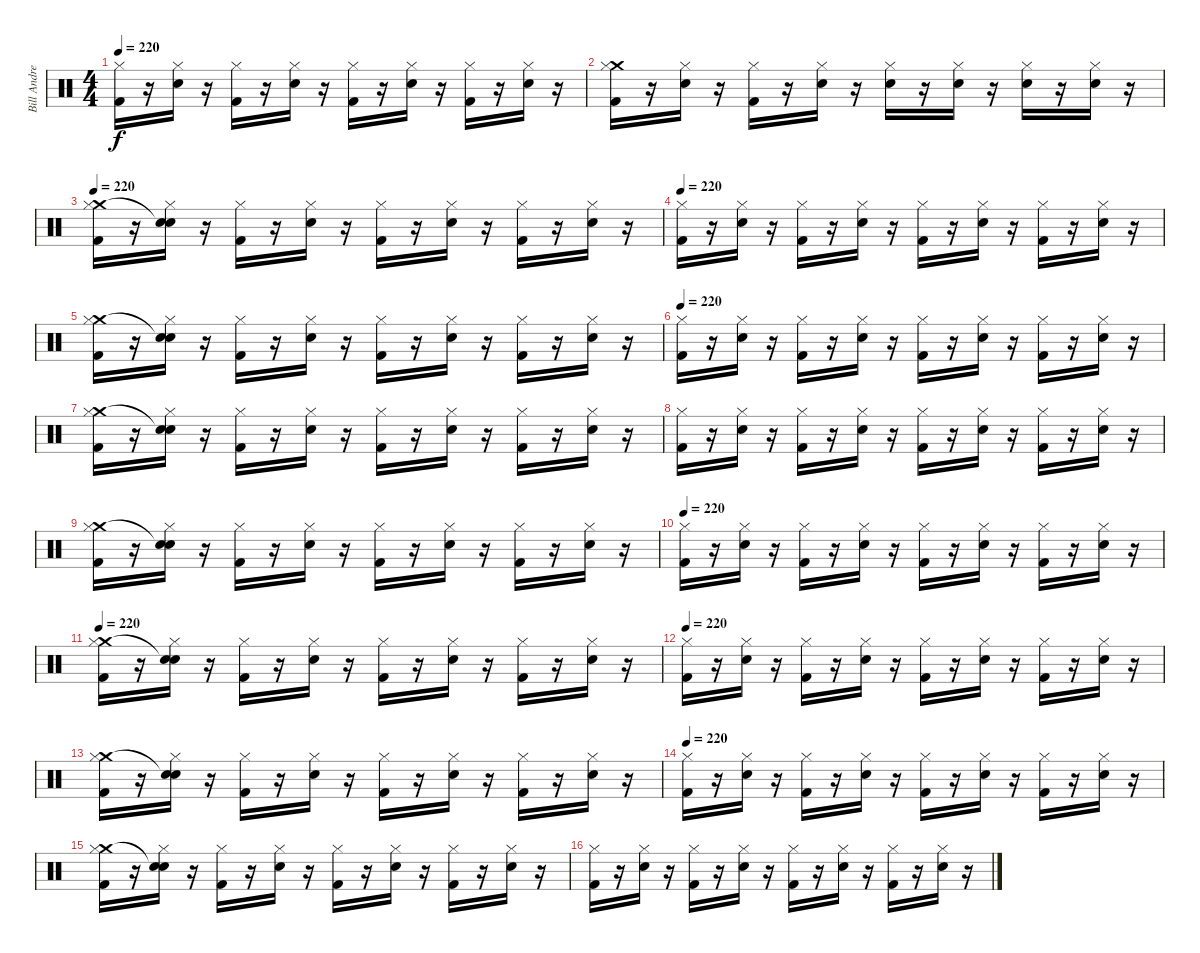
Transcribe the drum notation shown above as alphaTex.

\track ("Bill Andrews" "Bill Andre") {instrument percussion}
\staff {score}
\articulation defaults
\ts (4 4)
\tempo 220
\clef neutral
\ks c
("Hi-Hat (closed)" "Kick (hit) 2").16{dy f} r.16 ("Hi-Hat (closed)" "Snare (hit) 2").16 r.16 ("Hi-Hat (closed)" "Kick (hit) 2").16 r.16 ("Hi-Hat (closed)" "Snare (hit) 2").16 r.16 ("Hi-Hat (closed)" "Kick (hit) 2").16 r.16 ("Hi-Hat (closed)" "Snare (hit) 2").16 r.16 ("Hi-Hat (closed)" "Kick (hit) 2").16 r.16 ("Hi-Hat (closed)" "Snare (hit) 2").16 r.16 |
("Crash medium (hit)" "Hi-Hat (closed)" "Kick (hit) 2").16 r.16 ("Hi-Hat (closed)" "Snare (hit) 2").16 r.16 ("Hi-Hat (closed)" "Kick (hit) 2").16 r.16 ("Hi-Hat (closed)" "Snare (hit) 2").16 r.16 ("Hi-Hat (closed)" "Snare (hit) 2").16 r.16 ("Hi-Hat (closed)" "Snare (hit) 2").16 r.16 ("Hi-Hat (closed)" "Snare (hit) 2").16 r.16 ("Hi-Hat (closed)" "Snare (hit) 2").16 r.16 |
\tempo 220
("Crash medium (hit)" "Hi-Hat (closed)" "Kick (hit) 2").16 r.16 ("Snare (hit)"{t} "Hi-Hat (closed)" "Snare (hit) 2").16 r.16 ("Hi-Hat (closed)" "Kick (hit) 2").16 r.16 ("Hi-Hat (closed)" "Snare (hit) 2").16 r.16 ("Hi-Hat (closed)" "Kick (hit) 2").16 r.16 ("Hi-Hat (closed)" "Snare (hit) 2").16 r.16 ("Hi-Hat (closed)" "Kick (hit) 2").16 r.16 ("Hi-Hat (closed)" "Snare (hit) 2").16 r.16 |
\tempo 220
("Hi-Hat (closed)" "Kick (hit) 2").16 r.16 ("Hi-Hat (closed)" "Snare (hit) 2").16 r.16 ("Hi-Hat (closed)" "Kick (hit) 2").16 r.16 ("Hi-Hat (closed)" "Snare (hit) 2").16 r.16 ("Hi-Hat (closed)" "Kick (hit) 2").16 r.16 ("Hi-Hat (closed)" "Snare (hit) 2").16 r.16 ("Hi-Hat (closed)" "Kick (hit) 2").16 r.16 ("Hi-Hat (closed)" "Snare (hit) 2").16 r.16 |
("Crash medium (hit)" "Hi-Hat (closed)" "Kick (hit) 2").16 r.16 ("Snare (hit)"{t} "Hi-Hat (closed)" "Snare (hit) 2").16 r.16 ("Hi-Hat (closed)" "Kick (hit) 2").16 r.16 ("Hi-Hat (closed)" "Snare (hit) 2").16 r.16 ("Hi-Hat (closed)" "Kick (hit) 2").16 r.16 ("Hi-Hat (closed)" "Snare (hit) 2").16 r.16 ("Hi-Hat (closed)" "Kick (hit) 2").16 r.16 ("Hi-Hat (closed)" "Snare (hit) 2").16 r.16 |
\tempo 220
("Hi-Hat (closed)" "Kick (hit) 2").16 r.16 ("Hi-Hat (closed)" "Snare (hit) 2").16 r.16 ("Hi-Hat (closed)" "Kick (hit) 2").16 r.16 ("Hi-Hat (closed)" "Snare (hit) 2").16 r.16 ("Hi-Hat (closed)" "Kick (hit) 2").16 r.16 ("Hi-Hat (closed)" "Snare (hit) 2").16 r.16 ("Hi-Hat (closed)" "Kick (hit) 2").16 r.16 ("Hi-Hat (closed)" "Snare (hit) 2").16 r.16 |
("Crash medium (hit)" "Hi-Hat (closed)" "Kick (hit) 2").16 r.16 ("Snare (hit)"{t} "Hi-Hat (closed)" "Snare (hit) 2").16 r.16 ("Hi-Hat (closed)" "Kick (hit) 2").16 r.16 ("Hi-Hat (closed)" "Snare (hit) 2").16 r.16 ("Hi-Hat (closed)" "Kick (hit) 2").16 r.16 ("Hi-Hat (closed)" "Snare (hit) 2").16 r.16 ("Hi-Hat (closed)" "Kick (hit) 2").16 r.16 ("Hi-Hat (closed)" "Snare (hit) 2").16 r.16 |
("Hi-Hat (closed)" "Kick (hit) 2").16 r.16 ("Hi-Hat (closed)" "Snare (hit) 2").16 r.16 ("Hi-Hat (closed)" "Kick (hit) 2").16 r.16 ("Hi-Hat (closed)" "Snare (hit) 2").16 r.16 ("Hi-Hat (closed)" "Kick (hit) 2").16 r.16 ("Hi-Hat (closed)" "Snare (hit) 2").16 r.16 ("Hi-Hat (closed)" "Kick (hit) 2").16 r.16 ("Hi-Hat (closed)" "Snare (hit) 2").16 r.16 |
("Crash medium (hit)" "Hi-Hat (closed)" "Kick (hit) 2").16 r.16 ("Snare (hit)"{t} "Hi-Hat (closed)" "Snare (hit) 2").16 r.16 ("Hi-Hat (closed)" "Kick (hit) 2").16 r.16 ("Hi-Hat (closed)" "Snare (hit) 2").16 r.16 ("Hi-Hat (closed)" "Kick (hit) 2").16 r.16 ("Hi-Hat (closed)" "Snare (hit) 2").16 r.16 ("Hi-Hat (closed)" "Kick (hit) 2").16 r.16 ("Hi-Hat (closed)" "Snare (hit) 2").16 r.16 |
\tempo 220
("Hi-Hat (closed)" "Kick (hit) 2").16 r.16 ("Hi-Hat (closed)" "Snare (hit) 2").16 r.16 ("Hi-Hat (closed)" "Kick (hit) 2").16 r.16 ("Hi-Hat (closed)" "Snare (hit) 2").16 r.16 ("Hi-Hat (closed)" "Kick (hit) 2").16 r.16 ("Hi-Hat (closed)" "Snare (hit) 2").16 r.16 ("Hi-Hat (closed)" "Kick (hit) 2").16 r.16 ("Hi-Hat (closed)" "Snare (hit) 2").16 r.16 |
\tempo 220
("Crash medium (hit)" "Hi-Hat (closed)" "Kick (hit) 2").16 r.16 ("Snare (hit)"{t} "Hi-Hat (closed)" "Snare (hit) 2").16 r.16 ("Hi-Hat (closed)" "Kick (hit) 2").16 r.16 ("Hi-Hat (closed)" "Snare (hit) 2").16 r.16 ("Hi-Hat (closed)" "Kick (hit) 2").16 r.16 ("Hi-Hat (closed)" "Snare (hit) 2").16 r.16 ("Hi-Hat (closed)" "Kick (hit) 2").16 r.16 ("Hi-Hat (closed)" "Snare (hit) 2").16 r.16 |
\tempo 220
("Hi-Hat (closed)" "Kick (hit) 2").16 r.16 ("Hi-Hat (closed)" "Snare (hit) 2").16 r.16 ("Hi-Hat (closed)" "Kick (hit) 2").16 r.16 ("Hi-Hat (closed)" "Snare (hit) 2").16 r.16 ("Hi-Hat (closed)" "Kick (hit) 2").16 r.16 ("Hi-Hat (closed)" "Snare (hit) 2").16 r.16 ("Hi-Hat (closed)" "Kick (hit) 2").16 r.16 ("Hi-Hat (closed)" "Snare (hit) 2").16 r.16 |
("Crash medium (hit)" "Hi-Hat (closed)" "Kick (hit) 2").16 r.16 ("Snare (hit)"{t} "Hi-Hat (closed)" "Snare (hit) 2").16 r.16 ("Hi-Hat (closed)" "Kick (hit) 2").16 r.16 ("Hi-Hat (closed)" "Snare (hit) 2").16 r.16 ("Hi-Hat (closed)" "Kick (hit) 2").16 r.16 ("Hi-Hat (closed)" "Snare (hit) 2").16 r.16 ("Hi-Hat (closed)" "Kick (hit) 2").16 r.16 ("Hi-Hat (closed)" "Snare (hit) 2").16 r.16 |
\tempo 220
("Hi-Hat (closed)" "Kick (hit) 2").16 r.16 ("Hi-Hat (closed)" "Snare (hit) 2").16 r.16 ("Hi-Hat (closed)" "Kick (hit) 2").16 r.16 ("Hi-Hat (closed)" "Snare (hit) 2").16 r.16 ("Hi-Hat (closed)" "Kick (hit) 2").16 r.16 ("Hi-Hat (closed)" "Snare (hit) 2").16 r.16 ("Hi-Hat (closed)" "Kick (hit) 2").16 r.16 ("Hi-Hat (closed)" "Snare (hit) 2").16 r.16 |
("Crash medium (hit)" "Hi-Hat (closed)" "Kick (hit) 2").16 r.16 ("Snare (hit)"{t} "Hi-Hat (closed)" "Snare (hit) 2").16 r.16 ("Hi-Hat (closed)" "Kick (hit) 2").16 r.16 ("Hi-Hat (closed)" "Snare (hit) 2").16 r.16 ("Hi-Hat (closed)" "Kick (hit) 2").16 r.16 ("Hi-Hat (closed)" "Snare (hit) 2").16 r.16 ("Hi-Hat (closed)" "Kick (hit) 2").16 r.16 ("Hi-Hat (closed)" "Snare (hit) 2").16 r.16 |
("Hi-Hat (closed)" "Kick (hit) 2").16 r.16 ("Hi-Hat (closed)" "Snare (hit) 2").16 r.16 ("Hi-Hat (closed)" "Kick (hit) 2").16 r.16 ("Hi-Hat (closed)" "Snare (hit) 2").16 r.16 ("Hi-Hat (closed)" "Kick (hit) 2").16 r.16 ("Hi-Hat (closed)" "Snare (hit) 2").16 r.16 ("Hi-Hat (closed)" "Kick (hit) 2").16 r.16 ("Hi-Hat (closed)" "Snare (hit) 2").16 r.16
